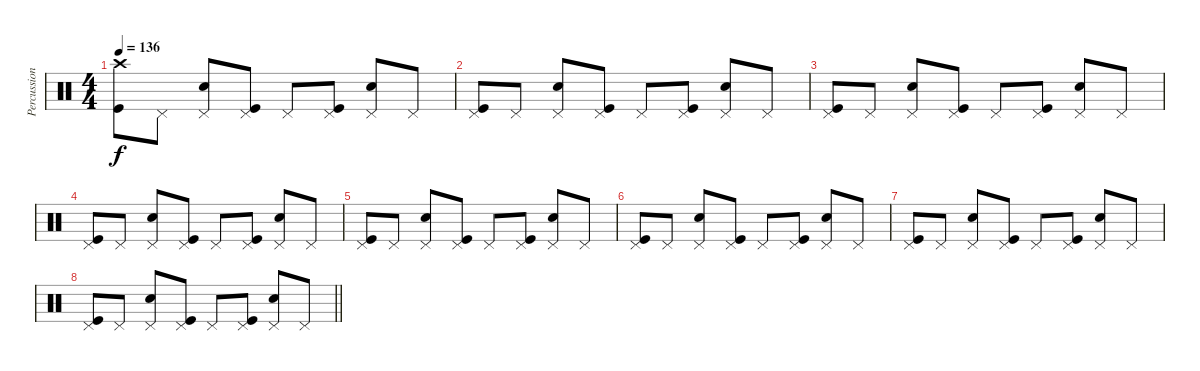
\track ("Percussion" "Percussion") {instrument percussion}
\staff {score}
\articulation defaults
\ts (4 4)
\tempo 136
\clef neutral
\ks c
("Crash high (hit)" "Kick (hit)").8{dy f} "Pedal Hi-Hat (hit)".8 ("Pedal Hi-Hat (hit)" "Snare (hit) 2").8 ("Pedal Hi-Hat (hit)" "Kick (hit)").8 "Pedal Hi-Hat (hit)".8 ("Pedal Hi-Hat (hit)" "Kick (hit)").8 ("Pedal Hi-Hat (hit)" "Snare (hit) 2").8 "Pedal Hi-Hat (hit)".8 |
("Pedal Hi-Hat (hit)" "Kick (hit)").8 "Pedal Hi-Hat (hit)".8 ("Pedal Hi-Hat (hit)" "Snare (hit) 2").8 ("Pedal Hi-Hat (hit)" "Kick (hit)").8 "Pedal Hi-Hat (hit)".8 ("Pedal Hi-Hat (hit)" "Kick (hit)").8 ("Pedal Hi-Hat (hit)" "Snare (hit) 2").8 "Pedal Hi-Hat (hit)".8 |
("Pedal Hi-Hat (hit)" "Kick (hit)").8 "Pedal Hi-Hat (hit)".8 ("Pedal Hi-Hat (hit)" "Snare (hit) 2").8 ("Pedal Hi-Hat (hit)" "Kick (hit)").8 "Pedal Hi-Hat (hit)".8 ("Pedal Hi-Hat (hit)" "Kick (hit)").8 ("Pedal Hi-Hat (hit)" "Snare (hit) 2").8 "Pedal Hi-Hat (hit)".8 |
("Pedal Hi-Hat (hit)" "Kick (hit)").8 "Pedal Hi-Hat (hit)".8 ("Pedal Hi-Hat (hit)" "Snare (hit) 2").8 ("Pedal Hi-Hat (hit)" "Kick (hit)").8 "Pedal Hi-Hat (hit)".8 ("Pedal Hi-Hat (hit)" "Kick (hit)").8 ("Pedal Hi-Hat (hit)" "Snare (hit) 2").8 "Pedal Hi-Hat (hit)".8 |
("Pedal Hi-Hat (hit)" "Kick (hit)").8 "Pedal Hi-Hat (hit)".8 ("Pedal Hi-Hat (hit)" "Snare (hit) 2").8 ("Pedal Hi-Hat (hit)" "Kick (hit)").8 "Pedal Hi-Hat (hit)".8 ("Pedal Hi-Hat (hit)" "Kick (hit)").8 ("Pedal Hi-Hat (hit)" "Snare (hit) 2").8 "Pedal Hi-Hat (hit)".8 |
("Pedal Hi-Hat (hit)" "Kick (hit)").8 "Pedal Hi-Hat (hit)".8 ("Pedal Hi-Hat (hit)" "Snare (hit) 2").8 ("Pedal Hi-Hat (hit)" "Kick (hit)").8 "Pedal Hi-Hat (hit)".8 ("Pedal Hi-Hat (hit)" "Kick (hit)").8 ("Pedal Hi-Hat (hit)" "Snare (hit) 2").8 "Pedal Hi-Hat (hit)".8 |
("Pedal Hi-Hat (hit)" "Kick (hit)").8 "Pedal Hi-Hat (hit)".8 ("Pedal Hi-Hat (hit)" "Snare (hit) 2").8 ("Pedal Hi-Hat (hit)" "Kick (hit)").8 "Pedal Hi-Hat (hit)".8 ("Pedal Hi-Hat (hit)" "Kick (hit)").8 ("Pedal Hi-Hat (hit)" "Snare (hit) 2").8 "Pedal Hi-Hat (hit)".8 |
\barLineRight lightlight
("Pedal Hi-Hat (hit)" "Kick (hit)").8 "Pedal Hi-Hat (hit)".8 ("Pedal Hi-Hat (hit)" "Snare (hit) 2").8 ("Pedal Hi-Hat (hit)" "Kick (hit)").8 "Pedal Hi-Hat (hit)".8 ("Pedal Hi-Hat (hit)" "Kick (hit)").8 ("Pedal Hi-Hat (hit)" "Snare (hit) 2").8 "Pedal Hi-Hat (hit)".8
